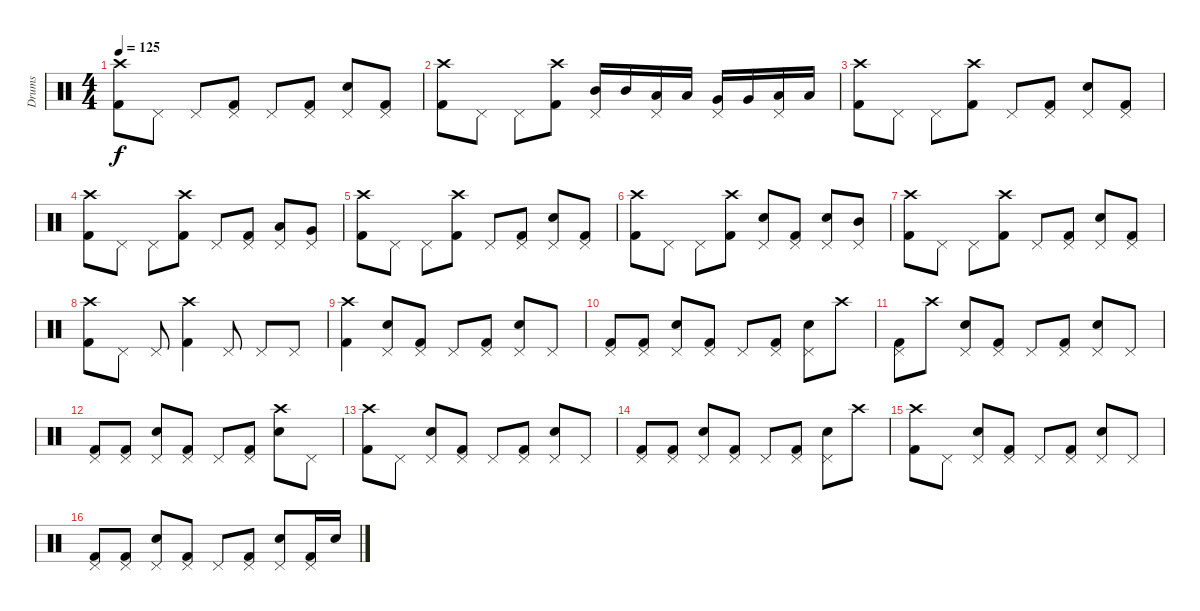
\track ("Drums" "Drums") {instrument percussion}
\staff {score}
\articulation defaults
\ts (4 4)
\tempo 125
\clef neutral
\ks c
("Crash high (hit)" "Kick (hit) 2").8{dy f} "Pedal Hi-Hat (hit)".8 "Pedal Hi-Hat (hit)".8 ("Pedal Hi-Hat (hit)" "Kick (hit) 2").8 "Pedal Hi-Hat (hit)".8 ("Pedal Hi-Hat (hit)" "Kick (hit) 2").8 ("Pedal Hi-Hat (hit)" "Snare (hit) 2").8 ("Pedal Hi-Hat (hit)" "Kick (hit) 2").8 |
("Crash high (hit)" "Kick (hit) 2").8 "Pedal Hi-Hat (hit)".8 "Pedal Hi-Hat (hit)".8 ("Crash high (hit)" "Kick (hit) 2").8 ("Pedal Hi-Hat (hit)" "Mid Tom (hit)").16 "Mid Tom (hit)".16 ("Pedal Hi-Hat (hit)" "Low Tom (hit)").16 "Low Tom (hit)".16 ("Pedal Hi-Hat (hit)" "Very Low Tom (hit)").16 "Very Low Tom (hit)".16 ("Pedal Hi-Hat (hit)" "Low Floor Tom (hit)").16 "Low Floor Tom (hit)".16 |
("Crash high (hit)" "Kick (hit) 2").8 "Pedal Hi-Hat (hit)".8 "Pedal Hi-Hat (hit)".8 ("Crash high (hit)" "Kick (hit) 2").8 "Pedal Hi-Hat (hit)".8 ("Pedal Hi-Hat (hit)" "Kick (hit) 2").8 ("Pedal Hi-Hat (hit)" "Snare (hit) 2").8 ("Pedal Hi-Hat (hit)" "Kick (hit) 2").8 |
("Crash high (hit)" "Kick (hit) 2").8 "Pedal Hi-Hat (hit)".8 "Pedal Hi-Hat (hit)".8 ("Crash high (hit)" "Kick (hit) 2").8 "Pedal Hi-Hat (hit)".8 ("Pedal Hi-Hat (hit)" "Kick (hit) 2").8 ("Pedal Hi-Hat (hit)" "Low Tom (hit)").8 ("Pedal Hi-Hat (hit)" "Very Low Tom (hit)").8 |
("Crash high (hit)" "Kick (hit) 2").8 "Pedal Hi-Hat (hit)".8 "Pedal Hi-Hat (hit)".8 ("Crash high (hit)" "Kick (hit) 2").8 "Pedal Hi-Hat (hit)".8 ("Pedal Hi-Hat (hit)" "Kick (hit) 2").8 ("Pedal Hi-Hat (hit)" "Snare (hit) 2").8 ("Pedal Hi-Hat (hit)" "Kick (hit) 2").8 |
("Crash high (hit)" "Kick (hit) 2").8 "Pedal Hi-Hat (hit)".8 "Pedal Hi-Hat (hit)".8 ("Crash high (hit)" "Kick (hit) 2").8 ("Pedal Hi-Hat (hit)" "Snare (hit) 2").8 ("Pedal Hi-Hat (hit)" "Kick (hit) 2").8 ("Pedal Hi-Hat (hit)" "Snare (hit) 2").8 ("Pedal Hi-Hat (hit)" "Mid Tom (hit)").8 |
("Crash high (hit)" "Kick (hit) 2").8 "Pedal Hi-Hat (hit)".8 "Pedal Hi-Hat (hit)".8 ("Crash high (hit)" "Kick (hit) 2").8 "Pedal Hi-Hat (hit)".8 ("Pedal Hi-Hat (hit)" "Kick (hit) 2").8 ("Pedal Hi-Hat (hit)" "Snare (hit) 2").8 ("Pedal Hi-Hat (hit)" "Kick (hit) 2").8 |
("Crash high (hit)" "Kick (hit) 2").8 "Pedal Hi-Hat (hit)".8 "Pedal Hi-Hat (hit)".8 ("Crash high (hit)" "Kick (hit) 2").4 "Pedal Hi-Hat (hit)".8 "Pedal Hi-Hat (hit)".8 "Pedal Hi-Hat (hit)".8 |
("Crash high (hit)" "Kick (hit) 2").4 ("Pedal Hi-Hat (hit)" "Snare (hit) 2").8 ("Pedal Hi-Hat (hit)" "Kick (hit) 2").8 "Pedal Hi-Hat (hit)".8 ("Pedal Hi-Hat (hit)" "Kick (hit) 2").8 ("Pedal Hi-Hat (hit)" "Snare (hit) 2").8 "Pedal Hi-Hat (hit)".8 |
("Pedal Hi-Hat (hit)" "Kick (hit) 2").8 ("Pedal Hi-Hat (hit)" "Kick (hit) 2").8 ("Pedal Hi-Hat (hit)" "Snare (hit) 2").8 ("Pedal Hi-Hat (hit)" "Kick (hit) 2").8 "Pedal Hi-Hat (hit)".8 ("Pedal Hi-Hat (hit)" "Kick (hit) 2").8 ("Pedal Hi-Hat (hit)" "Snare (hit) 2").8 "Crash high (hit)".8 |
("Pedal Hi-Hat (hit)" "Kick (hit) 2").8 "Crash high (hit)".8 ("Pedal Hi-Hat (hit)" "Snare (hit) 2").8 ("Pedal Hi-Hat (hit)" "Kick (hit) 2").8 "Pedal Hi-Hat (hit)".8 ("Pedal Hi-Hat (hit)" "Kick (hit) 2").8 ("Pedal Hi-Hat (hit)" "Snare (hit) 2").8 "Pedal Hi-Hat (hit)".8 |
("Pedal Hi-Hat (hit)" "Kick (hit) 2").8 ("Pedal Hi-Hat (hit)" "Kick (hit) 2").8 ("Pedal Hi-Hat (hit)" "Snare (hit) 2").8 ("Pedal Hi-Hat (hit)" "Kick (hit) 2").8 "Pedal Hi-Hat (hit)".8 ("Pedal Hi-Hat (hit)" "Kick (hit) 2").8 ("Crash high (hit)" "Snare (hit) 2").8 "Pedal Hi-Hat (hit)".8 |
("Crash high (hit)" "Kick (hit) 2").8 "Pedal Hi-Hat (hit)".8 ("Pedal Hi-Hat (hit)" "Snare (hit) 2").8 ("Pedal Hi-Hat (hit)" "Kick (hit) 2").8 "Pedal Hi-Hat (hit)".8 ("Pedal Hi-Hat (hit)" "Kick (hit) 2").8 ("Pedal Hi-Hat (hit)" "Snare (hit) 2").8 "Pedal Hi-Hat (hit)".8 |
("Pedal Hi-Hat (hit)" "Kick (hit) 2").8 ("Pedal Hi-Hat (hit)" "Kick (hit) 2").8 ("Pedal Hi-Hat (hit)" "Snare (hit) 2").8 ("Pedal Hi-Hat (hit)" "Kick (hit) 2").8 "Pedal Hi-Hat (hit)".8 ("Pedal Hi-Hat (hit)" "Kick (hit) 2").8 ("Pedal Hi-Hat (hit)" "Snare (hit) 2").8 "Crash high (hit)".8 |
("Crash high (hit)" "Kick (hit) 2").8 "Pedal Hi-Hat (hit)".8 ("Pedal Hi-Hat (hit)" "Snare (hit) 2").8 ("Pedal Hi-Hat (hit)" "Kick (hit) 2").8 "Pedal Hi-Hat (hit)".8 ("Pedal Hi-Hat (hit)" "Kick (hit) 2").8 ("Pedal Hi-Hat (hit)" "Snare (hit) 2").8 "Pedal Hi-Hat (hit)".8 |
("Pedal Hi-Hat (hit)" "Kick (hit) 2").8 ("Pedal Hi-Hat (hit)" "Kick (hit) 2").8 ("Pedal Hi-Hat (hit)" "Snare (hit) 2").8 ("Pedal Hi-Hat (hit)" "Kick (hit) 2").8 "Pedal Hi-Hat (hit)".8 ("Pedal Hi-Hat (hit)" "Kick (hit) 2").8 ("Pedal Hi-Hat (hit)" "Snare (hit) 2").8 ("Pedal Hi-Hat (hit)" "Kick (hit) 2").16 "Snare (hit) 2".16
